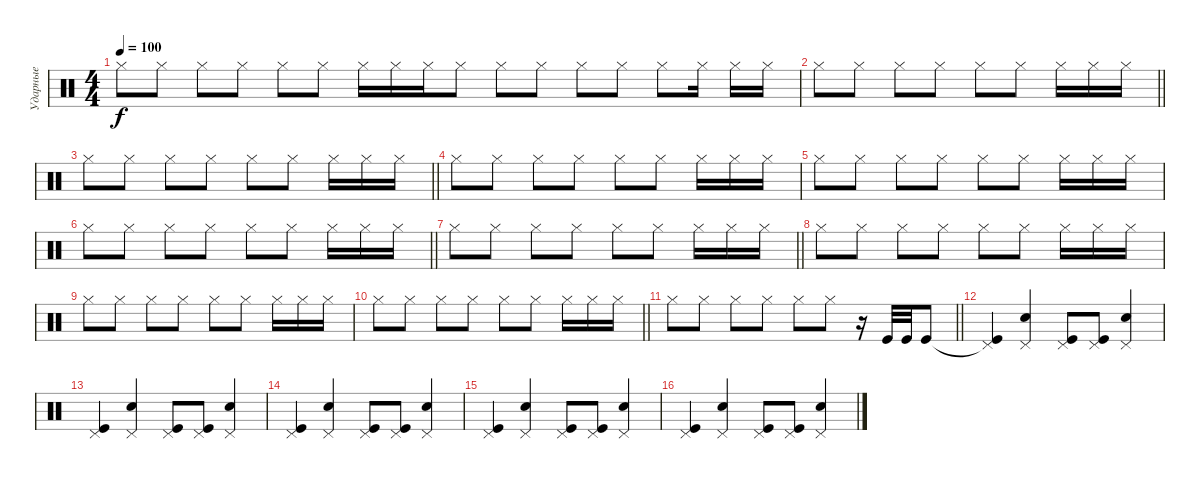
\track ("Ударные" "Ударные") {instrument percussion}
\staff {score}
\articulation defaults
\ts (4 4)
\tempo 100
\clef neutral
\ks c "Hi-Hat (closed)".8{dy f} "Hi-Hat (closed)".8 "Hi-Hat (closed)".8 "Hi-Hat (closed)".8 "Hi-Hat (closed)".8 "Hi-Hat (closed)".8 "Hi-Hat (closed)".16 "Hi-Hat (closed)".16 "Hi-Hat (closed)".16 "Hi-Hat (closed)".8 "Hi-Hat (closed)".8 "Hi-Hat (closed)".8 "Hi-Hat (closed)".8 "Hi-Hat (closed)".8 "Hi-Hat (closed)".8 "Hi-Hat (closed)".16 "Hi-Hat (closed)".16 "Hi-Hat (closed)".16
|
\barLineRight lightlight "Hi-Hat (closed)".8 "Hi-Hat (closed)".8 "Hi-Hat (closed)".8 "Hi-Hat (closed)".8 "Hi-Hat (closed)".8 "Hi-Hat (closed)".8 "Hi-Hat (closed)".16 "Hi-Hat (closed)".16 "Hi-Hat (closed)".16
|
\barLineRight lightlight "Hi-Hat (closed)".8 "Hi-Hat (closed)".8 "Hi-Hat (closed)".8 "Hi-Hat (closed)".8 "Hi-Hat (closed)".8 "Hi-Hat (closed)".8 "Hi-Hat (closed)".16 "Hi-Hat (closed)".16 "Hi-Hat (closed)".16
|
"Hi-Hat (closed)".8 "Hi-Hat (closed)".8 "Hi-Hat (closed)".8 "Hi-Hat (closed)".8 "Hi-Hat (closed)".8 "Hi-Hat (closed)".8 "Hi-Hat (closed)".16 "Hi-Hat (closed)".16 "Hi-Hat (closed)".16 |
"Hi-Hat (closed)".8 "Hi-Hat (closed)".8 "Hi-Hat (closed)".8 "Hi-Hat (closed)".8 "Hi-Hat (closed)".8 "Hi-Hat (closed)".8 "Hi-Hat (closed)".16 "Hi-Hat (closed)".16 "Hi-Hat (closed)".16 |
\barLineRight lightlight "Hi-Hat (closed)".8 "Hi-Hat (closed)".8 "Hi-Hat (closed)".8 "Hi-Hat (closed)".8 "Hi-Hat (closed)".8 "Hi-Hat (closed)".8 "Hi-Hat (closed)".16 "Hi-Hat (closed)".16 "Hi-Hat (closed)".16
|
\barLineRight lightlight "Hi-Hat (closed)".8 "Hi-Hat (closed)".8 "Hi-Hat (closed)".8 "Hi-Hat (closed)".8 "Hi-Hat (closed)".8 "Hi-Hat (closed)".8 "Hi-Hat (closed)".16 "Hi-Hat (closed)".16 "Hi-Hat (closed)".16
|
"Hi-Hat (closed)".8 "Hi-Hat (closed)".8 "Hi-Hat (closed)".8 "Hi-Hat (closed)".8 "Hi-Hat (closed)".8 "Hi-Hat (closed)".8 "Hi-Hat (closed)".16 "Hi-Hat (closed)".16 "Hi-Hat (closed)".16 |
"Hi-Hat (closed)".8 "Hi-Hat (closed)".8 "Hi-Hat (closed)".8 "Hi-Hat (closed)".8 "Hi-Hat (closed)".8 "Hi-Hat (closed)".8 "Hi-Hat (closed)".16 "Hi-Hat (closed)".16 "Hi-Hat (closed)".16 |
\barLineRight lightlight "Hi-Hat (closed)".8 "Hi-Hat (closed)".8 "Hi-Hat (closed)".8 "Hi-Hat (closed)".8 "Hi-Hat (closed)".8 "Hi-Hat (closed)".8 "Hi-Hat (closed)".16 "Hi-Hat (closed)".16 "Hi-Hat (closed)".16
|
\barLineRight lightlight "Hi-Hat (closed)".8 "Hi-Hat (closed)".8 "Hi-Hat (closed)".8 "Hi-Hat (closed)".8 "Hi-Hat (closed)".8 "Hi-Hat (closed)".8
r.16 "Kick (hit)".32 "Kick (hit)".32 "Kick (hit)".8 |
("Pedal Hi-Hat (hit)"{t} "Kick (hit)").4 ("Pedal Hi-Hat (hit)" "Snare (hit) 2").4 ("Pedal Hi-Hat (hit)" "Kick (hit)").8 ("Pedal Hi-Hat (hit)" "Kick (hit)").8 ("Pedal Hi-Hat (hit)" "Snare (hit) 2").4 |
("Pedal Hi-Hat (hit)" "Kick (hit)").4 ("Pedal Hi-Hat (hit)" "Snare (hit) 2").4 ("Pedal Hi-Hat (hit)" "Kick (hit)").8 ("Pedal Hi-Hat (hit)" "Kick (hit)").8 ("Pedal Hi-Hat (hit)" "Snare (hit) 2").4 |
("Pedal Hi-Hat (hit)" "Kick (hit)").4 ("Pedal Hi-Hat (hit)" "Snare (hit) 2").4 ("Pedal Hi-Hat (hit)" "Kick (hit)").8 ("Pedal Hi-Hat (hit)" "Kick (hit)").8 ("Pedal Hi-Hat (hit)" "Snare (hit) 2").4 |
("Pedal Hi-Hat (hit)" "Kick (hit)").4 ("Pedal Hi-Hat (hit)" "Snare (hit) 2").4 ("Pedal Hi-Hat (hit)" "Kick (hit)").8 ("Pedal Hi-Hat (hit)" "Kick (hit)").8 ("Pedal Hi-Hat (hit)" "Snare (hit) 2").4 |
("Pedal Hi-Hat (hit)" "Kick (hit)").4 ("Pedal Hi-Hat (hit)" "Snare (hit) 2").4 ("Pedal Hi-Hat (hit)" "Kick (hit)").8 ("Pedal Hi-Hat (hit)" "Kick (hit)").8 ("Pedal Hi-Hat (hit)" "Snare (hit) 2").4
